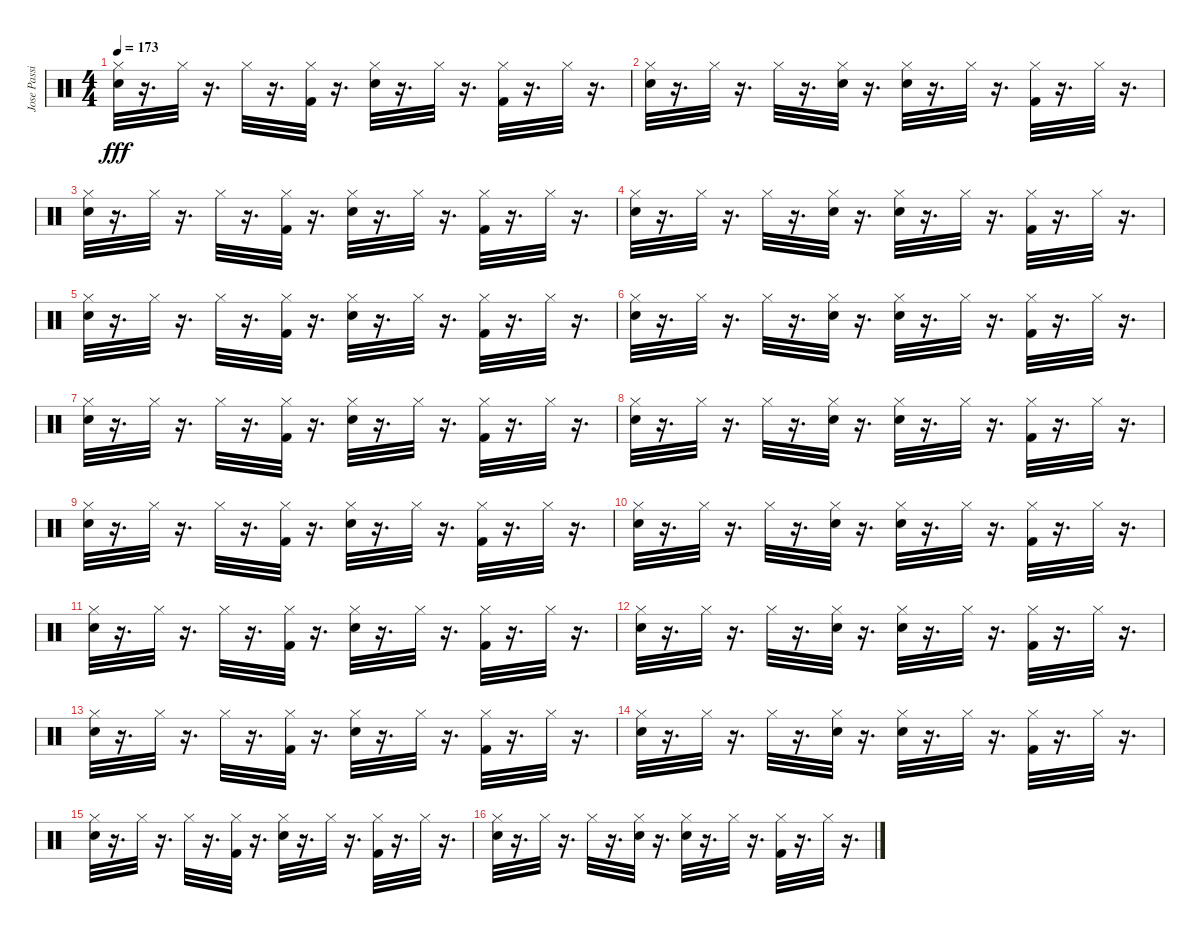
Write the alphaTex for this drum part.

\track ("Jose Passilas-Drums" "Jose Passi") {instrument percussion}
\staff {score}
\articulation defaults
\ts (4 4)
\tempo 173
\clef neutral
\ks c
("Hi-Hat (closed)" "Electric Snare (hit)").32{dy fff} r.16{d} "Hi-Hat (closed)".32 r.16{d} "Hi-Hat (closed)".32 r.16{d} ("Hi-Hat (closed)" "Kick (hit) 2").32 r.16{d} ("Hi-Hat (closed)" "Electric Snare (hit)").32 r.16{d} "Hi-Hat (closed)".32 r.16{d} ("Hi-Hat (closed)" "Kick (hit) 2").32 r.16{d} "Hi-Hat (closed)".32 r.16{d} |
("Hi-Hat (closed)" "Electric Snare (hit)").32 r.16{d} "Hi-Hat (closed)".32 r.16{d} "Hi-Hat (closed)".32 r.16{d} ("Hi-Hat (closed)" "Electric Snare (hit)").32 r.16{d} ("Hi-Hat (closed)" "Electric Snare (hit)").32 r.16{d} "Hi-Hat (closed)".32 r.16{d} ("Hi-Hat (closed)" "Kick (hit) 2").32 r.16{d} "Hi-Hat (closed)".32 r.16{d} |
("Electric Snare (hit)" "Hi-Hat (closed)").32 r.16{d} "Hi-Hat (closed)".32 r.16{d} "Hi-Hat (closed)".32 r.16{d} ("Kick (hit) 2" "Hi-Hat (closed)").32 r.16{d} ("Electric Snare (hit)" "Hi-Hat (closed)").32 r.16{d} "Hi-Hat (closed)".32 r.16{d} ("Kick (hit) 2" "Hi-Hat (closed)").32 r.16{d} "Hi-Hat (closed)".32 r.16{d} |
("Electric Snare (hit)" "Hi-Hat (closed)").32 r.16{d} "Hi-Hat (closed)".32 r.16{d} "Hi-Hat (closed)".32 r.16{d} ("Electric Snare (hit)" "Hi-Hat (closed)").32 r.16{d} ("Electric Snare (hit)" "Hi-Hat (closed)").32 r.16{d} "Hi-Hat (closed)".32 r.16{d} ("Kick (hit) 2" "Hi-Hat (closed)").32 r.16{d} "Hi-Hat (closed)".32 r.16{d} |
("Electric Snare (hit)" "Hi-Hat (closed)").32 r.16{d} "Hi-Hat (closed)".32 r.16{d} "Hi-Hat (closed)".32 r.16{d} ("Kick (hit) 2" "Hi-Hat (closed)").32 r.16{d} ("Electric Snare (hit)" "Hi-Hat (closed)").32 r.16{d} "Hi-Hat (closed)".32 r.16{d} ("Kick (hit) 2" "Hi-Hat (closed)").32 r.16{d} "Hi-Hat (closed)".32 r.16{d} |
("Electric Snare (hit)" "Hi-Hat (closed)").32 r.16{d} "Hi-Hat (closed)".32 r.16{d} "Hi-Hat (closed)".32 r.16{d} ("Electric Snare (hit)" "Hi-Hat (closed)").32 r.16{d} ("Electric Snare (hit)" "Hi-Hat (closed)").32 r.16{d} "Hi-Hat (closed)".32 r.16{d} ("Kick (hit) 2" "Hi-Hat (closed)").32 r.16{d} "Hi-Hat (closed)".32 r.16{d} |
("Hi-Hat (closed)" "Electric Snare (hit)").32 r.16{d} "Hi-Hat (closed)".32 r.16{d} "Hi-Hat (closed)".32 r.16{d} ("Hi-Hat (closed)" "Kick (hit) 2").32 r.16{d} ("Hi-Hat (closed)" "Electric Snare (hit)").32 r.16{d} "Hi-Hat (closed)".32 r.16{d} ("Hi-Hat (closed)" "Kick (hit) 2").32 r.16{d} "Hi-Hat (closed)".32 r.16{d} |
("Hi-Hat (closed)" "Electric Snare (hit)").32 r.16{d} "Hi-Hat (closed)".32 r.16{d} "Hi-Hat (closed)".32 r.16{d} ("Hi-Hat (closed)" "Electric Snare (hit)").32 r.16{d} ("Hi-Hat (closed)" "Electric Snare (hit)").32 r.16{d} "Hi-Hat (closed)".32 r.16{d} ("Kick (hit) 2" "Hi-Hat (closed)").32 r.16{d} "Hi-Hat (closed)".32 r.16{d} |
("Electric Snare (hit)" "Hi-Hat (closed)").32 r.16{d} "Hi-Hat (closed)".32 r.16{d} "Hi-Hat (closed)".32 r.16{d} ("Kick (hit) 2" "Hi-Hat (closed)").32 r.16{d} ("Electric Snare (hit)" "Hi-Hat (closed)").32 r.16{d} "Hi-Hat (closed)".32 r.16{d} ("Kick (hit) 2" "Hi-Hat (closed)").32 r.16{d} "Hi-Hat (closed)".32 r.16{d} |
("Electric Snare (hit)" "Hi-Hat (closed)").32 r.16{d} "Hi-Hat (closed)".32 r.16{d} "Hi-Hat (closed)".32 r.16{d} ("Electric Snare (hit)" "Hi-Hat (closed)").32 r.16{d} ("Electric Snare (hit)" "Hi-Hat (closed)").32 r.16{d} "Hi-Hat (closed)".32 r.16{d} ("Kick (hit) 2" "Hi-Hat (closed)").32 r.16{d} "Hi-Hat (closed)".32 r.16{d} |
("Hi-Hat (closed)" "Electric Snare (hit)").32 r.16{d} "Hi-Hat (closed)".32 r.16{d} "Hi-Hat (closed)".32 r.16{d} ("Hi-Hat (closed)" "Kick (hit) 2").32 r.16{d} ("Hi-Hat (closed)" "Electric Snare (hit)").32 r.16{d} "Hi-Hat (closed)".32 r.16{d} ("Hi-Hat (closed)" "Kick (hit) 2").32 r.16{d} "Hi-Hat (closed)".32 r.16{d} |
("Hi-Hat (closed)" "Electric Snare (hit)").32 r.16{d} "Hi-Hat (closed)".32 r.16{d} "Hi-Hat (closed)".32 r.16{d} ("Hi-Hat (closed)" "Electric Snare (hit)").32 r.16{d} ("Hi-Hat (closed)" "Electric Snare (hit)").32 r.16{d} "Hi-Hat (closed)".32 r.16{d} ("Hi-Hat (closed)" "Kick (hit) 2").32 r.16{d} "Hi-Hat (closed)".32 r.16{d} |
("Hi-Hat (closed)" "Electric Snare (hit)").32 r.16{d} "Hi-Hat (closed)".32 r.16{d} "Hi-Hat (closed)".32 r.16{d} ("Hi-Hat (closed)" "Kick (hit) 2").32 r.16{d} ("Hi-Hat (closed)" "Electric Snare (hit)").32 r.16{d} "Hi-Hat (closed)".32 r.16{d} ("Hi-Hat (closed)" "Kick (hit) 2").32 r.16{d} "Hi-Hat (closed)".32 r.16{d} |
("Hi-Hat (closed)" "Electric Snare (hit)").32 r.16{d} "Hi-Hat (closed)".32 r.16{d} "Hi-Hat (closed)".32 r.16{d} ("Hi-Hat (closed)" "Electric Snare (hit)").32 r.16{d} ("Hi-Hat (closed)" "Electric Snare (hit)").32 r.16{d} "Hi-Hat (closed)".32 r.16{d} ("Hi-Hat (closed)" "Kick (hit) 2").32 r.16{d} "Hi-Hat (closed)".32 r.16{d} |
("Electric Snare (hit)" "Hi-Hat (closed)").32 r.16{d} "Hi-Hat (closed)".32 r.16{d} "Hi-Hat (closed)".32 r.16{d} ("Kick (hit) 2" "Hi-Hat (closed)").32 r.16{d} ("Electric Snare (hit)" "Hi-Hat (closed)").32 r.16{d} "Hi-Hat (closed)".32 r.16{d} ("Kick (hit) 2" "Hi-Hat (closed)").32 r.16{d} "Hi-Hat (closed)".32 r.16{d} |
("Electric Snare (hit)" "Hi-Hat (closed)").32 r.16{d} "Hi-Hat (closed)".32 r.16{d} "Hi-Hat (closed)".32 r.16{d} ("Electric Snare (hit)" "Hi-Hat (closed)").32 r.16{d} ("Electric Snare (hit)" "Hi-Hat (closed)").32 r.16{d} "Hi-Hat (closed)".32 r.16{d} ("Kick (hit) 2" "Hi-Hat (closed)").32 r.16{d} "Hi-Hat (closed)".32 r.16{d}
